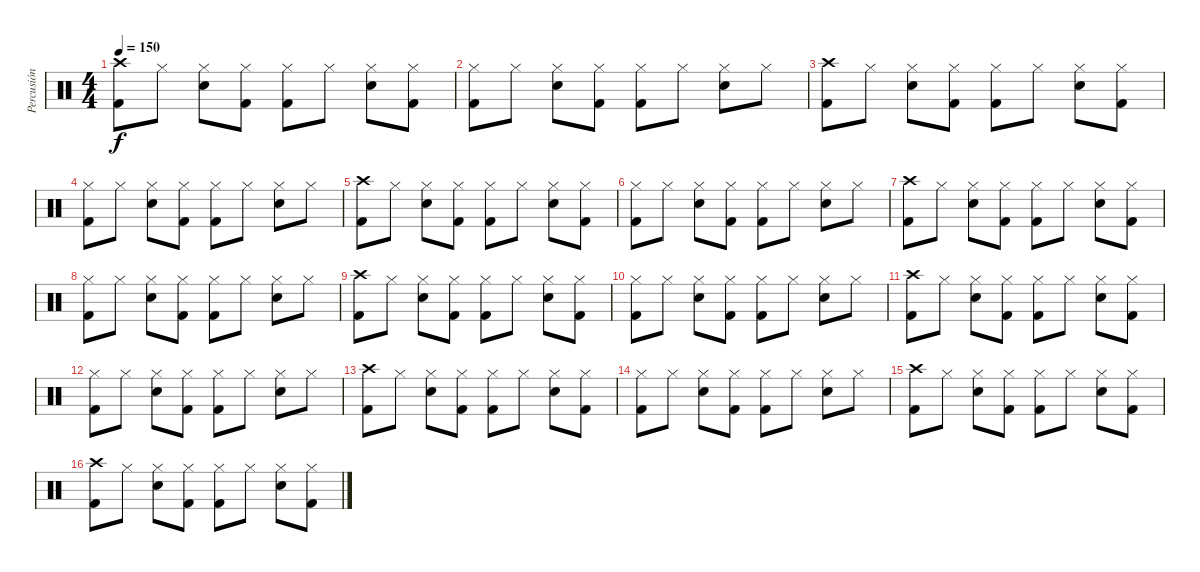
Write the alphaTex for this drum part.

\track ("Percusión" "Percusión") {instrument percussion}
\staff {score}
\articulation defaults
\ts (4 4)
\tempo 150
\clef neutral
\ks c
("Kick (hit) 2" "Crash high (hit)").8{dy f} "Hi-Hat (closed)".8 ("Hi-Hat (closed)" "Electric Snare (hit)").8 ("Kick (hit) 2" "Hi-Hat (closed)").8 ("Kick (hit) 2" "Hi-Hat (closed)").8 "Hi-Hat (closed)".8 ("Hi-Hat (closed)" "Electric Snare (hit)").8 ("Kick (hit) 2" "Hi-Hat (closed)").8 |
("Kick (hit) 2" "Hi-Hat (closed)").8 "Hi-Hat (closed)".8 ("Hi-Hat (closed)" "Electric Snare (hit)").8 ("Kick (hit) 2" "Hi-Hat (closed)").8 ("Kick (hit) 2" "Hi-Hat (closed)").8 "Hi-Hat (closed)".8 ("Hi-Hat (closed)" "Electric Snare (hit)").8 "Hi-Hat (closed)".8 |
("Kick (hit) 2" "Crash high (hit)").8 "Hi-Hat (closed)".8 ("Hi-Hat (closed)" "Electric Snare (hit)").8 ("Kick (hit) 2" "Hi-Hat (closed)").8 ("Kick (hit) 2" "Hi-Hat (closed)").8 "Hi-Hat (closed)".8 ("Hi-Hat (closed)" "Electric Snare (hit)").8 ("Kick (hit) 2" "Hi-Hat (closed)").8 |
("Kick (hit) 2" "Hi-Hat (closed)").8 "Hi-Hat (closed)".8 ("Hi-Hat (closed)" "Electric Snare (hit)").8 ("Kick (hit) 2" "Hi-Hat (closed)").8 ("Kick (hit) 2" "Hi-Hat (closed)").8 "Hi-Hat (closed)".8 ("Hi-Hat (closed)" "Electric Snare (hit)").8 "Hi-Hat (closed)".8 |
("Kick (hit) 2" "Crash high (hit)").8 "Hi-Hat (closed)".8 ("Hi-Hat (closed)" "Electric Snare (hit)").8 ("Kick (hit) 2" "Hi-Hat (closed)").8 ("Kick (hit) 2" "Hi-Hat (closed)").8 "Hi-Hat (closed)".8 ("Hi-Hat (closed)" "Electric Snare (hit)").8 ("Kick (hit) 2" "Hi-Hat (closed)").8 |
("Kick (hit) 2" "Hi-Hat (closed)").8 "Hi-Hat (closed)".8 ("Hi-Hat (closed)" "Electric Snare (hit)").8 ("Kick (hit) 2" "Hi-Hat (closed)").8 ("Kick (hit) 2" "Hi-Hat (closed)").8 "Hi-Hat (closed)".8 ("Hi-Hat (closed)" "Electric Snare (hit)").8 "Hi-Hat (closed)".8 |
("Kick (hit) 2" "Crash high (hit)").8 "Hi-Hat (closed)".8 ("Hi-Hat (closed)" "Electric Snare (hit)").8 ("Kick (hit) 2" "Hi-Hat (closed)").8 ("Kick (hit) 2" "Hi-Hat (closed)").8 "Hi-Hat (closed)".8 ("Hi-Hat (closed)" "Electric Snare (hit)").8 ("Kick (hit) 2" "Hi-Hat (closed)").8 |
("Kick (hit) 2" "Hi-Hat (closed)").8 "Hi-Hat (closed)".8 ("Hi-Hat (closed)" "Electric Snare (hit)").8 ("Kick (hit) 2" "Hi-Hat (closed)").8 ("Kick (hit) 2" "Hi-Hat (closed)").8 "Hi-Hat (closed)".8 ("Hi-Hat (closed)" "Electric Snare (hit)").8 "Hi-Hat (closed)".8 |
("Kick (hit) 2" "Crash high (hit)").8 "Hi-Hat (closed)".8 ("Hi-Hat (closed)" "Electric Snare (hit)").8 ("Kick (hit) 2" "Hi-Hat (closed)").8 ("Kick (hit) 2" "Hi-Hat (closed)").8 "Hi-Hat (closed)".8 ("Hi-Hat (closed)" "Electric Snare (hit)").8 ("Kick (hit) 2" "Hi-Hat (closed)").8 |
("Kick (hit) 2" "Hi-Hat (closed)").8 "Hi-Hat (closed)".8 ("Hi-Hat (closed)" "Electric Snare (hit)").8 ("Kick (hit) 2" "Hi-Hat (closed)").8 ("Kick (hit) 2" "Hi-Hat (closed)").8 "Hi-Hat (closed)".8 ("Hi-Hat (closed)" "Electric Snare (hit)").8 "Hi-Hat (closed)".8 |
("Kick (hit) 2" "Crash high (hit)").8 "Hi-Hat (closed)".8 ("Hi-Hat (closed)" "Electric Snare (hit)").8 ("Kick (hit) 2" "Hi-Hat (closed)").8 ("Kick (hit) 2" "Hi-Hat (closed)").8 "Hi-Hat (closed)".8 ("Hi-Hat (closed)" "Electric Snare (hit)").8 ("Kick (hit) 2" "Hi-Hat (closed)").8 |
("Kick (hit) 2" "Hi-Hat (closed)").8 "Hi-Hat (closed)".8 ("Hi-Hat (closed)" "Electric Snare (hit)").8 ("Kick (hit) 2" "Hi-Hat (closed)").8 ("Kick (hit) 2" "Hi-Hat (closed)").8 "Hi-Hat (closed)".8 ("Hi-Hat (closed)" "Electric Snare (hit)").8 "Hi-Hat (closed)".8 |
("Kick (hit) 2" "Crash high (hit)").8 "Hi-Hat (closed)".8 ("Hi-Hat (closed)" "Electric Snare (hit)").8 ("Kick (hit) 2" "Hi-Hat (closed)").8 ("Kick (hit) 2" "Hi-Hat (closed)").8 "Hi-Hat (closed)".8 ("Hi-Hat (closed)" "Electric Snare (hit)").8 ("Kick (hit) 2" "Hi-Hat (closed)").8 |
("Kick (hit) 2" "Hi-Hat (closed)").8 "Hi-Hat (closed)".8 ("Hi-Hat (closed)" "Electric Snare (hit)").8 ("Kick (hit) 2" "Hi-Hat (closed)").8 ("Kick (hit) 2" "Hi-Hat (closed)").8 "Hi-Hat (closed)".8 ("Hi-Hat (closed)" "Electric Snare (hit)").8 "Hi-Hat (closed)".8 |
("Kick (hit) 2" "Crash high (hit)").8 "Hi-Hat (closed)".8 ("Hi-Hat (closed)" "Electric Snare (hit)").8 ("Kick (hit) 2" "Hi-Hat (closed)").8 ("Kick (hit) 2" "Hi-Hat (closed)").8 "Hi-Hat (closed)".8 ("Hi-Hat (closed)" "Electric Snare (hit)").8 ("Kick (hit) 2" "Hi-Hat (closed)").8 |
("Kick (hit) 2" "Crash high (hit)").8 "Hi-Hat (closed)".8 ("Hi-Hat (closed)" "Electric Snare (hit)").8 ("Kick (hit) 2" "Hi-Hat (closed)").8 ("Kick (hit) 2" "Hi-Hat (closed)").8 "Hi-Hat (closed)".8 ("Hi-Hat (closed)" "Electric Snare (hit)").8 ("Kick (hit) 2" "Hi-Hat (closed)").8
